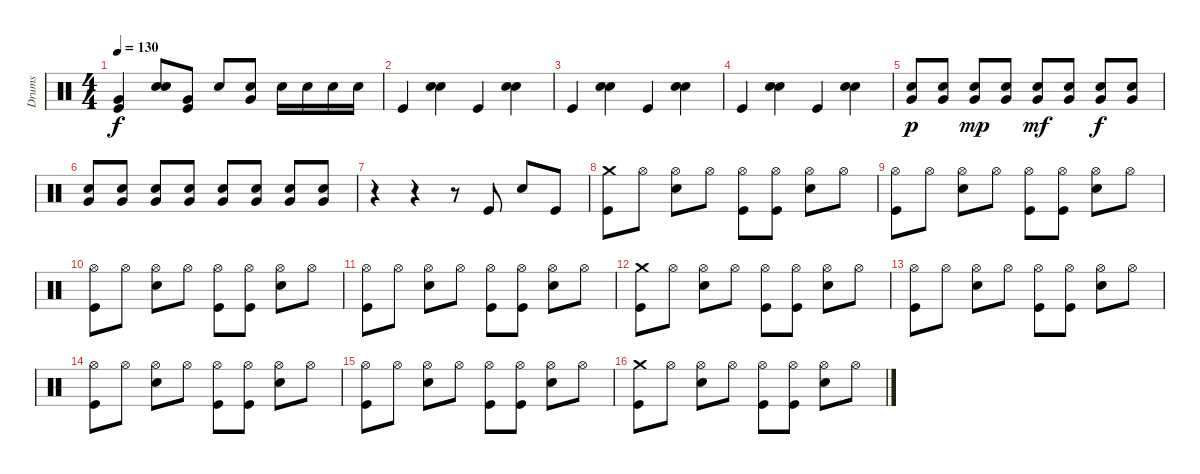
\track ("Drums" "Drums") {instrument percussion}
\staff {score}
\articulation defaults
\ts (4 4)
\tempo 130
\clef neutral
\ks c
("Kick (hit)" "Very Low Tom (hit)").4{dy f} ("Snare (hit) 2" "Hand Clap (hit)").8 ("Kick (hit)" "Very Low Tom (hit)").8 "Snare (hit) 2".8 ("Snare (hit) 2" "Very Low Tom (hit)").8 "Snare (hit) 2".16 "Snare (hit) 2".16 "Snare (hit) 2".16 "Snare (hit) 2".16 |
"Kick (hit)".4 ("Snare (hit) 2" "Hand Clap (hit)").4 "Kick (hit)".4 ("Snare (hit) 2" "Hand Clap (hit)").4 |
"Kick (hit)".4 ("Snare (hit) 2" "Hand Clap (hit)").4 "Kick (hit)".4 ("Snare (hit) 2" "Hand Clap (hit)").4 |
"Kick (hit)".4 ("Snare (hit) 2" "Hand Clap (hit)").4 "Kick (hit)".4 ("Snare (hit) 2" "Hand Clap (hit)").4 |
("Snare (hit) 2" "Very Low Tom (hit)").8{dy p} ("Snare (hit) 2" "Very Low Tom (hit)").8 ("Snare (hit) 2" "Very Low Tom (hit)").8{dy mp} ("Snare (hit) 2" "Very Low Tom (hit)").8 ("Snare (hit) 2" "Very Low Tom (hit)").8{dy mf} ("Snare (hit) 2" "Very Low Tom (hit)").8 ("Snare (hit) 2" "Very Low Tom (hit)").8{dy f} ("Snare (hit) 2" "Very Low Tom (hit)").8 |
("Snare (hit) 2" "Very Low Tom (hit)").8 ("Snare (hit) 2" "Very Low Tom (hit)").8 ("Snare (hit) 2" "Very Low Tom (hit)").8 ("Snare (hit) 2" "Very Low Tom (hit)").8 ("Snare (hit) 2" "Very Low Tom (hit)").8 ("Snare (hit) 2" "Very Low Tom (hit)").8 ("Snare (hit) 2" "Very Low Tom (hit)").8 ("Snare (hit) 2" "Very Low Tom (hit)").8 |
r.4 r.4 r.8 "Kick (hit)".8 "Snare (hit) 2".8 "Kick (hit)".8 |
("Crash medium (hit)" "Kick (hit)").8 "Hi-Hat (open)".8 ("Hi-Hat (open)" "Snare (hit) 2").8 "Hi-Hat (open)".8 ("Hi-Hat (open)" "Kick (hit)").8 ("Hi-Hat (open)" "Kick (hit)").8 ("Hi-Hat (open)" "Snare (hit) 2").8 "Hi-Hat (open)".8 |
("Hi-Hat (open)" "Kick (hit)").8 "Hi-Hat (open)".8 ("Hi-Hat (open)" "Snare (hit) 2").8 "Hi-Hat (open)".8 ("Hi-Hat (open)" "Kick (hit)").8 ("Hi-Hat (open)" "Kick (hit)").8 ("Hi-Hat (open)" "Snare (hit) 2").8 "Hi-Hat (open)".8 |
("Hi-Hat (open)" "Kick (hit)").8 "Hi-Hat (open)".8 ("Hi-Hat (open)" "Snare (hit) 2").8 "Hi-Hat (open)".8 ("Hi-Hat (open)" "Kick (hit)").8 ("Hi-Hat (open)" "Kick (hit)").8 ("Hi-Hat (open)" "Snare (hit) 2").8 "Hi-Hat (open)".8 |
("Hi-Hat (open)" "Kick (hit)").8 "Hi-Hat (open)".8 ("Hi-Hat (open)" "Snare (hit) 2").8 "Hi-Hat (open)".8 ("Hi-Hat (open)" "Kick (hit)").8 ("Hi-Hat (open)" "Kick (hit)").8 ("Hi-Hat (open)" "Snare (hit) 2").8 "Hi-Hat (open)".8 |
("Crash medium (hit)" "Kick (hit)").8 "Hi-Hat (open)".8 ("Hi-Hat (open)" "Snare (hit) 2").8 "Hi-Hat (open)".8 ("Hi-Hat (open)" "Kick (hit)").8 ("Hi-Hat (open)" "Kick (hit)").8 ("Hi-Hat (open)" "Snare (hit) 2").8 "Hi-Hat (open)".8 |
("Hi-Hat (open)" "Kick (hit)").8 "Hi-Hat (open)".8 ("Hi-Hat (open)" "Snare (hit) 2").8 "Hi-Hat (open)".8 ("Hi-Hat (open)" "Kick (hit)").8 ("Hi-Hat (open)" "Kick (hit)").8 ("Hi-Hat (open)" "Snare (hit) 2").8 "Hi-Hat (open)".8 |
("Hi-Hat (open)" "Kick (hit)").8 "Hi-Hat (open)".8 ("Hi-Hat (open)" "Snare (hit) 2").8 "Hi-Hat (open)".8 ("Hi-Hat (open)" "Kick (hit)").8 ("Hi-Hat (open)" "Kick (hit)").8 ("Hi-Hat (open)" "Snare (hit) 2").8 "Hi-Hat (open)".8 |
("Hi-Hat (open)" "Kick (hit)").8 "Hi-Hat (open)".8 ("Hi-Hat (open)" "Snare (hit) 2").8 "Hi-Hat (open)".8 ("Hi-Hat (open)" "Kick (hit)").8 ("Hi-Hat (open)" "Kick (hit)").8 ("Hi-Hat (open)" "Snare (hit) 2").8 "Hi-Hat (open)".8 |
("Crash medium (hit)" "Kick (hit)").8 "Hi-Hat (open)".8 ("Hi-Hat (open)" "Snare (hit) 2").8 "Hi-Hat (open)".8 ("Hi-Hat (open)" "Kick (hit)").8 ("Hi-Hat (open)" "Kick (hit)").8 ("Hi-Hat (open)" "Snare (hit) 2").8 "Hi-Hat (open)".8
